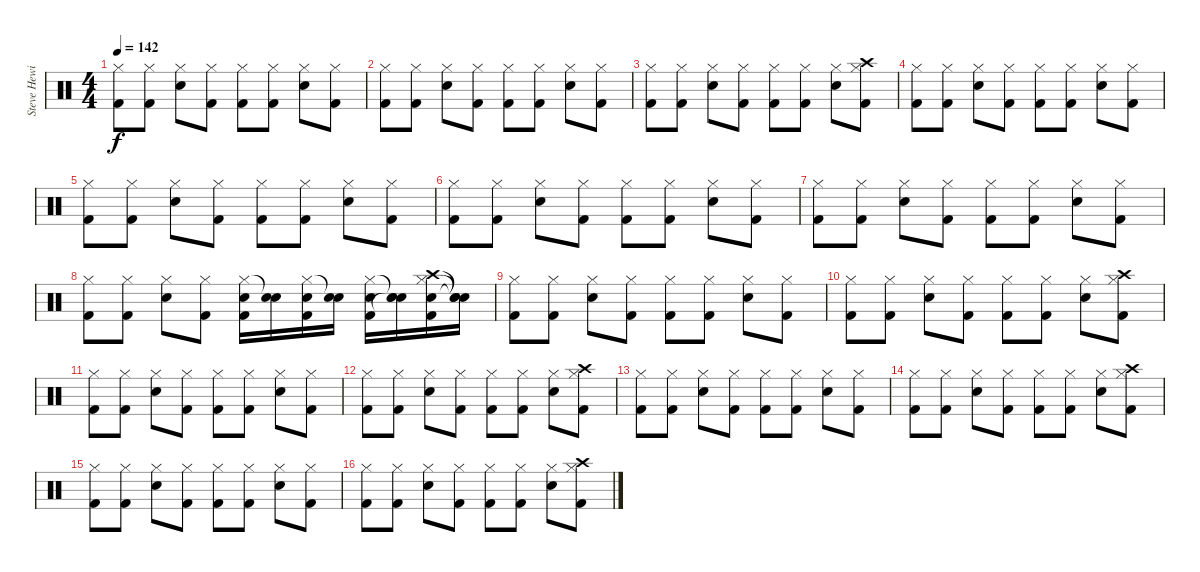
\track ("Steve Hewitt" "Steve Hewi") {instrument percussion}
\staff {score}
\articulation defaults
\ts (4 4)
\tempo 142
\clef neutral
\ks c
("Hi-Hat (closed)" "Kick (hit) 2").8{dy f} ("Hi-Hat (closed)" "Kick (hit) 2").8 ("Hi-Hat (closed)" "Snare (hit) 2").8 ("Hi-Hat (closed)" "Kick (hit) 2").8 ("Hi-Hat (closed)" "Kick (hit) 2").8 ("Hi-Hat (closed)" "Kick (hit) 2").8 ("Hi-Hat (closed)" "Snare (hit) 2").8 ("Hi-Hat (closed)" "Kick (hit) 2").8 |
("Hi-Hat (closed)" "Kick (hit) 2").8 ("Hi-Hat (closed)" "Kick (hit) 2").8 ("Hi-Hat (closed)" "Snare (hit) 2").8 ("Hi-Hat (closed)" "Kick (hit) 2").8 ("Hi-Hat (closed)" "Kick (hit) 2").8 ("Hi-Hat (closed)" "Kick (hit) 2").8 ("Hi-Hat (closed)" "Snare (hit) 2").8 ("Hi-Hat (closed)" "Kick (hit) 2").8 |
("Hi-Hat (closed)" "Kick (hit) 2").8 ("Hi-Hat (closed)" "Kick (hit) 2").8 ("Hi-Hat (closed)" "Snare (hit) 2").8 ("Hi-Hat (closed)" "Kick (hit) 2").8 ("Hi-Hat (closed)" "Kick (hit) 2").8 ("Hi-Hat (closed)" "Kick (hit) 2").8 ("Hi-Hat (closed)" "Snare (hit) 2").8 ("Crash high (hit)" "Hi-Hat (closed)" "Kick (hit) 2").8 |
("Hi-Hat (closed)" "Kick (hit) 2").8 ("Hi-Hat (closed)" "Kick (hit) 2").8 ("Hi-Hat (closed)" "Snare (hit) 2").8 ("Hi-Hat (closed)" "Kick (hit) 2").8 ("Hi-Hat (closed)" "Kick (hit) 2").8 ("Hi-Hat (closed)" "Kick (hit) 2").8 ("Hi-Hat (closed)" "Snare (hit) 2").8 ("Hi-Hat (closed)" "Kick (hit) 2").8 |
("Hi-Hat (closed)" "Kick (hit) 2").8 ("Hi-Hat (closed)" "Kick (hit) 2").8 ("Hi-Hat (closed)" "Snare (hit) 2").8 ("Hi-Hat (closed)" "Kick (hit) 2").8 ("Hi-Hat (closed)" "Kick (hit) 2").8 ("Hi-Hat (closed)" "Kick (hit) 2").8 ("Hi-Hat (closed)" "Snare (hit) 2").8 ("Hi-Hat (closed)" "Kick (hit) 2").8 |
("Hi-Hat (closed)" "Kick (hit) 2").8 ("Hi-Hat (closed)" "Kick (hit) 2").8 ("Hi-Hat (closed)" "Snare (hit) 2").8 ("Hi-Hat (closed)" "Kick (hit) 2").8 ("Hi-Hat (closed)" "Kick (hit) 2").8 ("Hi-Hat (closed)" "Kick (hit) 2").8 ("Hi-Hat (closed)" "Snare (hit) 2").8 ("Hi-Hat (closed)" "Kick (hit) 2").8 |
("Hi-Hat (closed)" "Kick (hit) 2").8 ("Hi-Hat (closed)" "Kick (hit) 2").8 ("Hi-Hat (closed)" "Snare (hit) 2").8 ("Hi-Hat (closed)" "Kick (hit) 2").8 ("Hi-Hat (closed)" "Kick (hit) 2").8 ("Hi-Hat (closed)" "Kick (hit) 2").8 ("Hi-Hat (closed)" "Snare (hit) 2").8 ("Hi-Hat (closed)" "Kick (hit) 2").8 |
("Hi-Hat (closed)" "Kick (hit) 2").8 ("Hi-Hat (closed)" "Kick (hit) 2").8 ("Hi-Hat (closed)" "Snare (hit) 2").8 ("Hi-Hat (closed)" "Kick (hit) 2").8 ("Snare (hit) 2" "Hi-Hat (closed)" "Kick (hit) 2").16 ("Snare (hit) 2" "Snare (hit)"{t}).16 ("Snare (hit) 2" "Hi-Hat (closed)" "Kick (hit) 2").16 ("Snare (hit) 2" "Snare (hit)"{t}).16 ("Snare (hit) 2" "Hi-Hat (closed)" "Kick (hit) 2").16 ("Snare (hit) 2" "Snare (hit)"{t} "Snare (hit)"{t}).16 ("Snare (hit) 2" "Crash high (hit)" "Hi-Hat (closed)" "Kick (hit) 2").16 ("Snare (hit)"{t} "Snare (hit)"{t} "Snare (hit)"{t}).16 |
("Hi-Hat (closed)" "Kick (hit) 2").8 ("Hi-Hat (closed)" "Kick (hit) 2").8 ("Hi-Hat (closed)" "Snare (hit) 2").8 ("Hi-Hat (closed)" "Kick (hit) 2").8 ("Hi-Hat (closed)" "Kick (hit) 2").8 ("Hi-Hat (closed)" "Kick (hit) 2").8 ("Hi-Hat (closed)" "Snare (hit) 2").8 ("Hi-Hat (closed)" "Kick (hit) 2").8 |
("Hi-Hat (closed)" "Kick (hit) 2").8 ("Hi-Hat (closed)" "Kick (hit) 2").8 ("Hi-Hat (closed)" "Snare (hit) 2").8 ("Hi-Hat (closed)" "Kick (hit) 2").8 ("Hi-Hat (closed)" "Kick (hit) 2").8 ("Hi-Hat (closed)" "Kick (hit) 2").8 ("Hi-Hat (closed)" "Snare (hit) 2").8 ("Crash high (hit)" "Hi-Hat (closed)" "Kick (hit) 2").8 |
("Hi-Hat (closed)" "Kick (hit) 2").8 ("Hi-Hat (closed)" "Kick (hit) 2").8 ("Hi-Hat (closed)" "Snare (hit) 2").8 ("Hi-Hat (closed)" "Kick (hit) 2").8 ("Hi-Hat (closed)" "Kick (hit) 2").8 ("Hi-Hat (closed)" "Kick (hit) 2").8 ("Hi-Hat (closed)" "Snare (hit) 2").8 ("Hi-Hat (closed)" "Kick (hit) 2").8 |
("Hi-Hat (closed)" "Kick (hit) 2").8 ("Hi-Hat (closed)" "Kick (hit) 2").8 ("Hi-Hat (closed)" "Snare (hit) 2").8 ("Hi-Hat (closed)" "Kick (hit) 2").8 ("Hi-Hat (closed)" "Kick (hit) 2").8 ("Hi-Hat (closed)" "Kick (hit) 2").8 ("Hi-Hat (closed)" "Snare (hit) 2").8 ("Crash high (hit)" "Hi-Hat (closed)" "Kick (hit) 2").8 |
("Hi-Hat (closed)" "Kick (hit) 2").8 ("Hi-Hat (closed)" "Kick (hit) 2").8 ("Hi-Hat (closed)" "Snare (hit) 2").8 ("Hi-Hat (closed)" "Kick (hit) 2").8 ("Hi-Hat (closed)" "Kick (hit) 2").8 ("Hi-Hat (closed)" "Kick (hit) 2").8 ("Hi-Hat (closed)" "Snare (hit) 2").8 ("Hi-Hat (closed)" "Kick (hit) 2").8 |
("Hi-Hat (closed)" "Kick (hit) 2").8 ("Hi-Hat (closed)" "Kick (hit) 2").8 ("Hi-Hat (closed)" "Snare (hit) 2").8 ("Hi-Hat (closed)" "Kick (hit) 2").8 ("Hi-Hat (closed)" "Kick (hit) 2").8 ("Hi-Hat (closed)" "Kick (hit) 2").8 ("Hi-Hat (closed)" "Snare (hit) 2").8 ("Crash high (hit)" "Hi-Hat (closed)" "Kick (hit) 2").8 |
("Hi-Hat (closed)" "Kick (hit) 2").8 ("Hi-Hat (closed)" "Kick (hit) 2").8 ("Hi-Hat (closed)" "Snare (hit) 2").8 ("Hi-Hat (closed)" "Kick (hit) 2").8 ("Hi-Hat (closed)" "Kick (hit) 2").8 ("Hi-Hat (closed)" "Kick (hit) 2").8 ("Hi-Hat (closed)" "Snare (hit) 2").8 ("Hi-Hat (closed)" "Kick (hit) 2").8 |
("Hi-Hat (closed)" "Kick (hit) 2").8 ("Hi-Hat (closed)" "Kick (hit) 2").8 ("Hi-Hat (closed)" "Snare (hit) 2").8 ("Hi-Hat (closed)" "Kick (hit) 2").8 ("Hi-Hat (closed)" "Kick (hit) 2").8 ("Hi-Hat (closed)" "Kick (hit) 2").8 ("Hi-Hat (closed)" "Snare (hit) 2").8 ("Crash high (hit)" "Hi-Hat (closed)" "Kick (hit) 2").8
